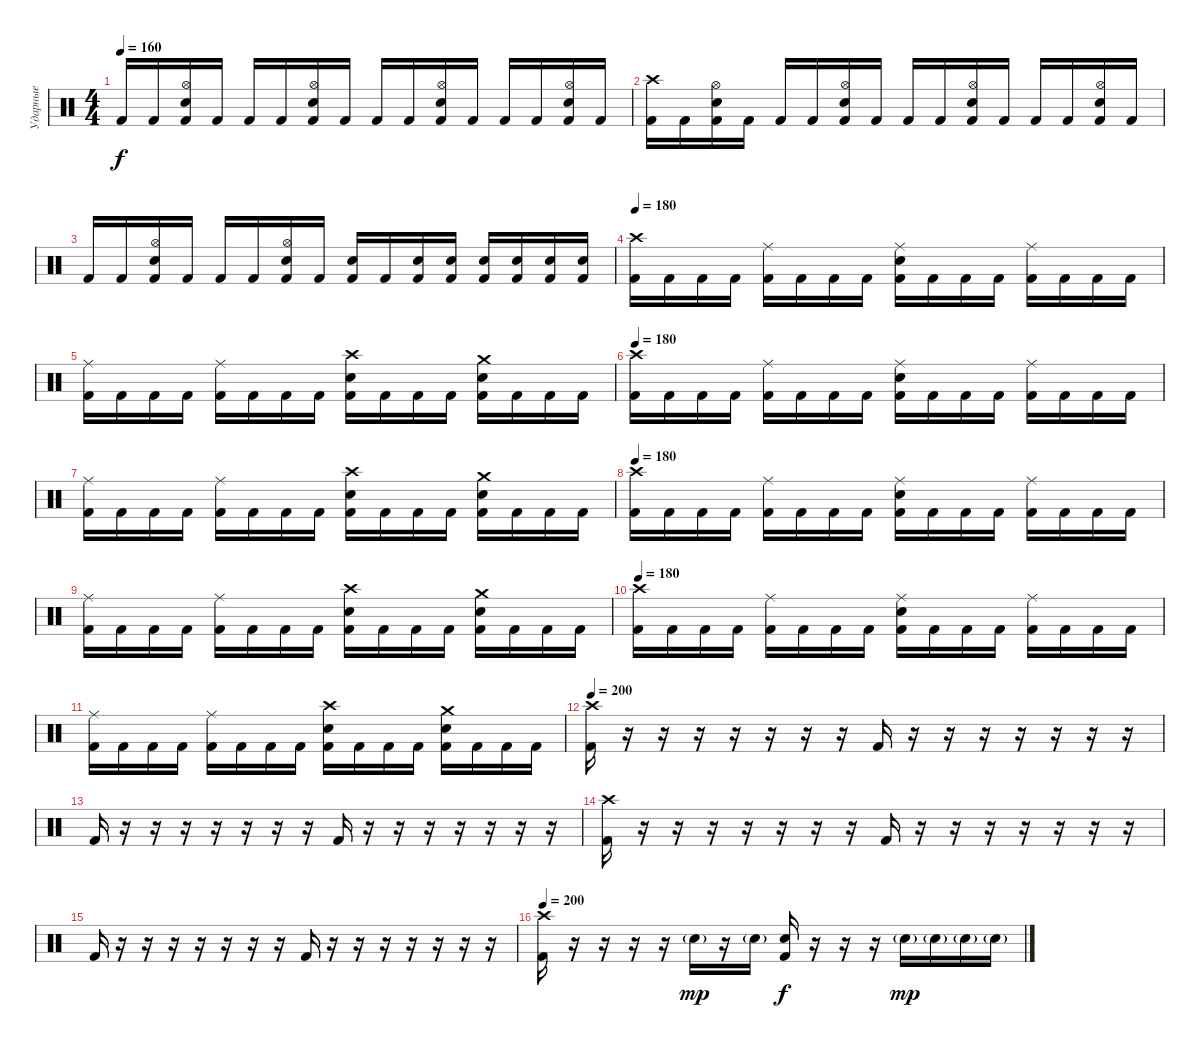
\track ("Ударные" "Ударные") {instrument percussion}
\staff {score}
\articulation defaults
\ts (4 4)
\tempo 160
\clef neutral
\ks c "Kick (hit) 2".16{dy f} "Kick (hit) 2".16
("Hi-Hat (open)" "Electric Snare (hit)" "Kick (hit) 2").16 "Kick (hit) 2".16 "Kick (hit) 2".16 "Kick (hit) 2".16 ("Hi-Hat (open)" "Electric Snare (hit)" "Kick (hit) 2").16 "Kick (hit) 2".16 "Kick (hit) 2".16 "Kick (hit) 2".16 ("Hi-Hat (open)" "Electric Snare (hit)" "Kick (hit) 2").16 "Kick (hit) 2".16 "Kick (hit) 2".16 "Kick (hit) 2".16 ("Hi-Hat (open)" "Electric Snare (hit)" "Kick (hit) 2").16 "Kick (hit) 2".16 |
("Crash high (hit)" "Kick (hit) 2").16 "Kick (hit) 2".16 ("Hi-Hat (open)" "Electric Snare (hit)" "Kick (hit) 2").16 "Kick (hit) 2".16 "Kick (hit) 2".16 "Kick (hit) 2".16 ("Hi-Hat (open)" "Electric Snare (hit)" "Kick (hit) 2").16 "Kick (hit) 2".16 "Kick (hit) 2".16 "Kick (hit) 2".16 ("Hi-Hat (open)" "Electric Snare (hit)" "Kick (hit) 2").16 "Kick (hit) 2".16 "Kick (hit) 2".16 "Kick (hit) 2".16 ("Hi-Hat (open)" "Electric Snare (hit)" "Kick (hit) 2").16 "Kick (hit) 2".16 |
"Kick (hit) 2".16 "Kick (hit) 2".16 ("Hi-Hat (open)" "Electric Snare (hit)" "Kick (hit) 2").16 "Kick (hit) 2".16 "Kick (hit) 2".16 "Kick (hit) 2".16 ("Hi-Hat (open)" "Electric Snare (hit)" "Kick (hit) 2").16 "Kick (hit) 2".16 ("Electric Snare (hit)" "Kick (hit) 2").16 "Kick (hit) 2".16 ("Electric Snare (hit)" "Kick (hit) 2").16 ("Electric Snare (hit)" "Kick (hit) 2").16 ("Electric Snare (hit)" "Kick (hit) 2").16 ("Electric Snare (hit)" "Kick (hit) 2").16 ("Electric Snare (hit)" "Kick (hit) 2").16 ("Electric Snare (hit)" "Kick (hit) 2").16 |
\tempo 180
("Crash high (hit)" "Kick (hit) 2").16 "Kick (hit) 2".16 "Kick (hit) 2".16 "Kick (hit) 2".16 ("Ride (middle)" "Kick (hit) 2").16 "Kick (hit) 2".16 "Kick (hit) 2".16 "Kick (hit) 2".16 ("Ride (middle)" "Electric Snare (hit)" "Kick (hit) 2").16 "Kick (hit) 2".16 "Kick (hit) 2".16 "Kick (hit) 2".16 ("Ride (middle)" "Kick (hit) 2").16 "Kick (hit) 2".16 "Kick (hit) 2".16 "Kick (hit) 2".16 |
("Ride (middle)" "Kick (hit) 2").16 "Kick (hit) 2".16 "Kick (hit) 2".16 "Kick (hit) 2".16 ("Ride (middle)" "Kick (hit) 2").16 "Kick (hit) 2".16 "Kick (hit) 2".16 "Kick (hit) 2".16 ("Crash high (hit)" "Electric Snare (hit)" "Kick (hit) 2").16 "Kick (hit) 2".16 "Kick (hit) 2".16 "Kick (hit) 2".16 ("Crash medium (hit)" "Electric Snare (hit)" "Kick (hit) 2").16 "Kick (hit) 2".16 "Kick (hit) 2".16 "Kick (hit) 2".16 |
\tempo 180
("Crash high (hit)" "Kick (hit) 2").16 "Kick (hit) 2".16 "Kick (hit) 2".16 "Kick (hit) 2".16 ("Ride (middle)" "Kick (hit) 2").16 "Kick (hit) 2".16 "Kick (hit) 2".16 "Kick (hit) 2".16 ("Ride (middle)" "Electric Snare (hit)" "Kick (hit) 2").16 "Kick (hit) 2".16 "Kick (hit) 2".16 "Kick (hit) 2".16 ("Ride (middle)" "Kick (hit) 2").16 "Kick (hit) 2".16 "Kick (hit) 2".16 "Kick (hit) 2".16 |
("Ride (middle)" "Kick (hit) 2").16 "Kick (hit) 2".16 "Kick (hit) 2".16 "Kick (hit) 2".16 ("Ride (middle)" "Kick (hit) 2").16 "Kick (hit) 2".16 "Kick (hit) 2".16 "Kick (hit) 2".16 ("Crash high (hit)" "Electric Snare (hit)" "Kick (hit) 2").16 "Kick (hit) 2".16 "Kick (hit) 2".16 "Kick (hit) 2".16 ("Crash medium (hit)" "Electric Snare (hit)" "Kick (hit) 2").16 "Kick (hit) 2".16 "Kick (hit) 2".16 "Kick (hit) 2".16 |
\tempo 180
("Crash high (hit)" "Kick (hit) 2").16 "Kick (hit) 2".16 "Kick (hit) 2".16 "Kick (hit) 2".16 ("Ride (middle)" "Kick (hit) 2").16 "Kick (hit) 2".16 "Kick (hit) 2".16 "Kick (hit) 2".16 ("Ride (middle)" "Electric Snare (hit)" "Kick (hit) 2").16 "Kick (hit) 2".16 "Kick (hit) 2".16 "Kick (hit) 2".16 ("Ride (middle)" "Kick (hit) 2").16 "Kick (hit) 2".16 "Kick (hit) 2".16 "Kick (hit) 2".16 |
("Ride (middle)" "Kick (hit) 2").16 "Kick (hit) 2".16 "Kick (hit) 2".16 "Kick (hit) 2".16 ("Ride (middle)" "Kick (hit) 2").16 "Kick (hit) 2".16 "Kick (hit) 2".16 "Kick (hit) 2".16 ("Crash high (hit)" "Electric Snare (hit)" "Kick (hit) 2").16 "Kick (hit) 2".16 "Kick (hit) 2".16 "Kick (hit) 2".16 ("Crash medium (hit)" "Electric Snare (hit)" "Kick (hit) 2").16 "Kick (hit) 2".16 "Kick (hit) 2".16 "Kick (hit) 2".16 |
\tempo 180
("Crash high (hit)" "Kick (hit) 2").16 "Kick (hit) 2".16 "Kick (hit) 2".16 "Kick (hit) 2".16 ("Ride (middle)" "Kick (hit) 2").16 "Kick (hit) 2".16 "Kick (hit) 2".16 "Kick (hit) 2".16 ("Ride (middle)" "Electric Snare (hit)" "Kick (hit) 2").16 "Kick (hit) 2".16 "Kick (hit) 2".16 "Kick (hit) 2".16 ("Ride (middle)" "Kick (hit) 2").16 "Kick (hit) 2".16 "Kick (hit) 2".16 "Kick (hit) 2".16 |
("Ride (middle)" "Kick (hit) 2").16 "Kick (hit) 2".16 "Kick (hit) 2".16 "Kick (hit) 2".16 ("Ride (middle)" "Kick (hit) 2").16 "Kick (hit) 2".16 "Kick (hit) 2".16 "Kick (hit) 2".16 ("Crash high (hit)" "Electric Snare (hit)" "Kick (hit) 2").16 "Kick (hit) 2".16 "Kick (hit) 2".16 "Kick (hit) 2".16 ("Crash medium (hit)" "Electric Snare (hit)" "Kick (hit) 2").16 "Kick (hit) 2".16 "Kick (hit) 2".16 "Kick (hit) 2".16 |
\tempo 200
("Crash high (hit)" "Kick (hit) 2").16 r.16 r.16 r.16 r.16 r.16 r.16 r.16 "Kick (hit) 2".16 r.16 r.16 r.16 r.16 r.16 r.16 r.16 |
"Kick (hit) 2".16 r.16 r.16 r.16 r.16 r.16 r.16 r.16 "Kick (hit) 2".16 r.16 r.16 r.16 r.16 r.16 r.16 r.16 |
("Crash high (hit)" "Kick (hit) 2").16 r.16 r.16 r.16 r.16 r.16 r.16 r.16 "Kick (hit) 2".16 r.16 r.16 r.16 r.16 r.16 r.16 r.16 |
"Kick (hit) 2".16 r.16 r.16 r.16 r.16 r.16 r.16 r.16 "Kick (hit) 2".16 r.16 r.16 r.16 r.16 r.16 r.16 r.16 |
\tempo 200
("Crash high (hit)" "Kick (hit) 2").16 r.16 r.16 r.16 r.16 "Electric Snare (hit)"{g}.16{dy mp} r.16 "Electric Snare (hit)"{g}.16 ("Electric Snare (hit)" "Kick (hit) 2").16{dy f} r.16 r.16 r.16 "Electric Snare (hit)"{g}.16{dy mp} "Electric Snare (hit)"{g}.16 "Electric Snare (hit)"{g}.16 "Electric Snare (hit)"{g}.16
